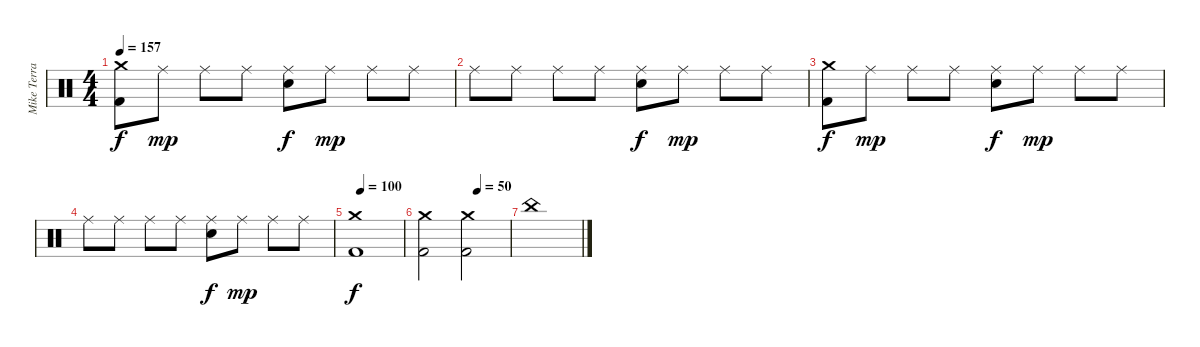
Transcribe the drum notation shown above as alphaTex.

\track ("Mike Terrana" "Mike Terra") {instrument percussion}
\staff {score}
\articulation defaults
\ts (4 4)
\tempo 157
\clef neutral
\ks c
("Crash medium (hit)" "Kick (hit) 2").8{dy f} "Ride (middle)".8{dy mp} "Ride (middle)".8 "Ride (middle)".8 ("Ride (middle)" "Snare (hit) 2").8{dy f} "Ride (middle)".8{dy mp} "Ride (middle)".8 "Ride (middle)".8 |
"Ride (middle)".8 "Ride (middle)".8 "Ride (middle)".8 "Ride (middle)".8 ("Ride (middle)" "Snare (hit) 2").8{dy f} "Ride (middle)".8{dy mp} "Ride (middle)".8 "Ride (middle)".8 |
("Crash medium (hit)" "Kick (hit) 2").8{dy f} "Ride (middle)".8{dy mp} "Ride (middle)".8 "Ride (middle)".8 ("Ride (middle)" "Snare (hit) 2").8{dy f} "Ride (middle)".8{dy mp} "Ride (middle)".8 "Ride (middle)".8 |
"Ride (middle)".8 "Ride (middle)".8 "Ride (middle)".8 "Ride (middle)".8 ("Ride (middle)" "Snare (hit) 2").8{dy f} "Ride (middle)".8{dy mp} "Ride (middle)".8 "Ride (middle)".8 |
\tempo (100 0.125)
("Crash medium (hit)" "Kick (hit) 2").1{dy f} |
\tempo (50 0.625)
("Crash medium (hit)" "Kick (hit) 2").2 ("Crash medium (hit)" "Kick (hit) 2").2 |
"China (hit)".1
